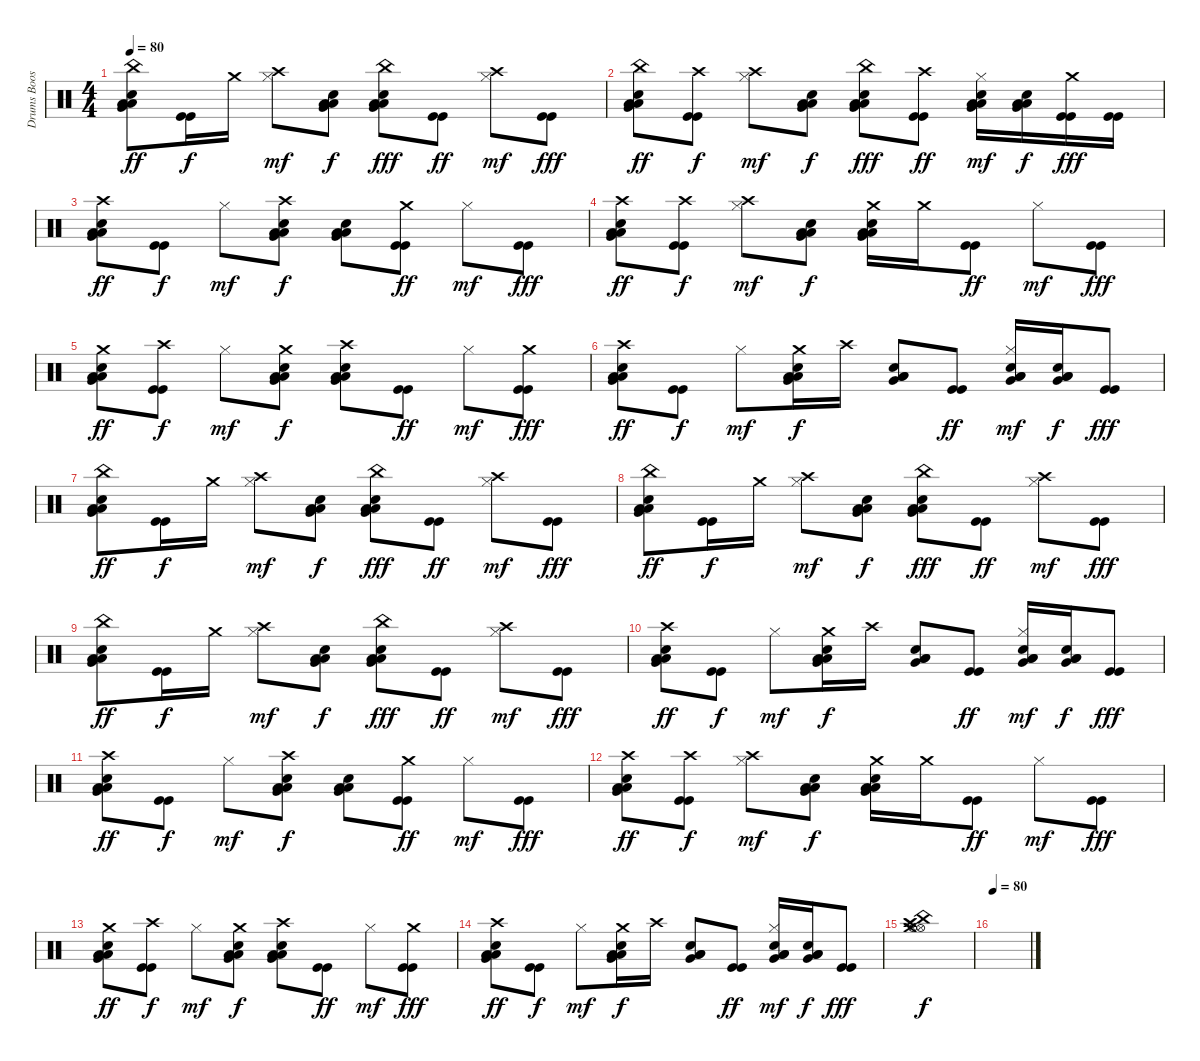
\track ("Drums Boost" "Drums Boos") {instrument percussion}
\staff {score}
\articulation defaults
\ts (4 4)
\tempo 80
\clef neutral
\ks c
("China (hit)" "Very Low Tom (hit)" "Low Floor Tom (hit)" "Low Tom (hit)" "Snare (hit) 2").8{bd 60 dy ff} ("Kick (hit)" "Kick (hit)").16{dy f} "Crash medium (hit)".16 ("Hi-Hat (closed)" "Crash high (hit)").8{dy mf} ("Very Low Tom (hit)" "Low Floor Tom (hit)" "Low Tom (hit)" "Snare (hit) 2").8{dy f} ("China (hit)" "Very Low Tom (hit)" "Low Floor Tom (hit)" "Low Tom (hit)" "Snare (hit) 2").8{dy fff} ("Kick (hit)" "Kick (hit)").8{dy ff} ("Hi-Hat (closed)" "Crash high (hit)").8{dy mf} ("Kick (hit)" "Kick (hit)").8{dy fff} |
("China (hit)" "Very Low Tom (hit)" "Low Floor Tom (hit)" "Low Tom (hit)" "Snare (hit) 2").8{bd 60 dy ff} ("Crash high (hit)" "Kick (hit)" "Kick (hit)").8{dy f} ("Hi-Hat (closed)" "Crash high (hit)").8{dy mf} ("Very Low Tom (hit)" "Low Floor Tom (hit)" "Low Tom (hit)" "Snare (hit) 2").8{dy f} ("China (hit)" "Very Low Tom (hit)" "Low Floor Tom (hit)" "Low Tom (hit)" "Snare (hit) 2").8{dy fff} ("Crash high (hit)" "Kick (hit)" "Kick (hit)").8{dy ff} ("Hi-Hat (closed)" "Very Low Tom (hit)" "Low Floor Tom (hit)" "Electric Snare (hit)" "Low Tom (hit)").16{dy mf} ("Very Low Tom (hit)" "Low Floor Tom (hit)" "Electric Snare (hit)" "Low Tom (hit)").16{dy f} ("Crash medium (hit)" "Kick (hit)" "Kick (hit)").16{dy fff} ("Kick (hit)" "Kick (hit)").16 |
("Crash high (hit)" "Very Low Tom (hit)" "Low Floor Tom (hit)" "Low Tom (hit)" "Snare (hit) 2").8{bd 60 dy ff} ("Kick (hit)" "Kick (hit)").8{dy f} "Hi-Hat (closed)".8{dy mf} ("Crash high (hit)" "Very Low Tom (hit)" "Low Floor Tom (hit)" "Low Tom (hit)" "Snare (hit) 2").8{dy f} ("Very Low Tom (hit)" "Low Floor Tom (hit)" "Low Tom (hit)" "Snare (hit) 2").8 ("Crash medium (hit)" "Kick (hit)" "Kick (hit)").8{dy ff} "Hi-Hat (closed)".8{dy mf} ("Kick (hit)" "Kick (hit)").8{dy fff} |
("Crash high (hit)" "Very Low Tom (hit)" "Low Floor Tom (hit)" "Low Tom (hit)" "Snare (hit) 2").8{bd 60 dy ff} ("Crash high (hit)" "Kick (hit)" "Kick (hit)").8{dy f} ("Hi-Hat (closed)" "Crash high (hit)").8{dy mf} ("Very Low Tom (hit)" "Low Floor Tom (hit)" "Low Tom (hit)" "Snare (hit) 2").8{dy f} ("Crash medium (hit)" "Very Low Tom (hit)" "Low Floor Tom (hit)" "Low Tom (hit)" "Snare (hit) 2").16 "Crash medium (hit)".16 ("Kick (hit)" "Kick (hit)").8{dy ff} "Hi-Hat (closed)".8{dy mf} ("Kick (hit)" "Kick (hit)").8{dy fff} |
("Crash medium (hit)" "Very Low Tom (hit)" "Low Floor Tom (hit)" "Low Tom (hit)" "Snare (hit) 2").8{bd 60 dy ff} ("Crash high (hit)" "Kick (hit)" "Kick (hit)").8{dy f} "Hi-Hat (closed)".8{dy mf} ("Crash medium (hit)" "Very Low Tom (hit)" "Low Floor Tom (hit)" "Low Tom (hit)" "Snare (hit) 2").8{dy f} ("Crash high (hit)" "Very Low Tom (hit)" "Low Floor Tom (hit)" "Low Tom (hit)" "Snare (hit) 2").8 ("Kick (hit)" "Kick (hit)").8{dy ff} "Hi-Hat (closed)".8{dy mf} ("Crash medium (hit)" "Kick (hit)" "Kick (hit)").8{dy fff} |
("Crash high (hit)" "Very Low Tom (hit)" "Low Floor Tom (hit)" "Low Tom (hit)" "Snare (hit) 2").8{bd 60 dy ff} ("Kick (hit)" "Kick (hit)").8{dy f} "Hi-Hat (closed)".8{dy mf} ("Crash medium (hit)" "Very Low Tom (hit)" "Low Floor Tom (hit)" "Low Tom (hit)" "Snare (hit) 2").16{dy f} "Crash high (hit)".16 ("Very Low Tom (hit)" "Low Floor Tom (hit)" "Low Tom (hit)" "Snare (hit) 2").8 ("Kick (hit)" "Kick (hit)").8{dy ff} ("Hi-Hat (closed)" "Very Low Tom (hit)" "Low Floor Tom (hit)" "Electric Snare (hit)" "Low Tom (hit)").16{dy mf} ("Very Low Tom (hit)" "Low Floor Tom (hit)" "Electric Snare (hit)" "Low Tom (hit)").16{dy f} ("Kick (hit)" "Kick (hit)").8{dy fff} |
("China (hit)" "Very Low Tom (hit)" "Low Floor Tom (hit)" "Low Tom (hit)" "Snare (hit) 2").8{bd 60 dy ff} ("Kick (hit)" "Kick (hit)").16{dy f} "Crash medium (hit)".16 ("Hi-Hat (closed)" "Crash high (hit)").8{dy mf} ("Very Low Tom (hit)" "Low Floor Tom (hit)" "Low Tom (hit)" "Snare (hit) 2").8{dy f} ("China (hit)" "Very Low Tom (hit)" "Low Floor Tom (hit)" "Low Tom (hit)" "Snare (hit) 2").8{dy fff} ("Kick (hit)" "Kick (hit)").8{dy ff} ("Hi-Hat (closed)" "Crash high (hit)").8{dy mf} ("Kick (hit)" "Kick (hit)").8{dy fff} |
("China (hit)" "Very Low Tom (hit)" "Low Floor Tom (hit)" "Low Tom (hit)" "Snare (hit) 2").8{bd 60 dy ff} ("Kick (hit)" "Kick (hit)").16{dy f} "Crash medium (hit)".16 ("Hi-Hat (closed)" "Crash high (hit)").8{dy mf} ("Very Low Tom (hit)" "Low Floor Tom (hit)" "Low Tom (hit)" "Snare (hit) 2").8{dy f} ("China (hit)" "Very Low Tom (hit)" "Low Floor Tom (hit)" "Low Tom (hit)" "Snare (hit) 2").8{dy fff} ("Kick (hit)" "Kick (hit)").8{dy ff} ("Hi-Hat (closed)" "Crash high (hit)").8{dy mf} ("Kick (hit)" "Kick (hit)").8{dy fff} |
("China (hit)" "Very Low Tom (hit)" "Low Floor Tom (hit)" "Low Tom (hit)" "Snare (hit) 2").8{bd 60 dy ff} ("Kick (hit)" "Kick (hit)").16{dy f} "Crash medium (hit)".16 ("Hi-Hat (closed)" "Crash high (hit)").8{dy mf} ("Very Low Tom (hit)" "Low Floor Tom (hit)" "Low Tom (hit)" "Snare (hit) 2").8{dy f} ("China (hit)" "Very Low Tom (hit)" "Low Floor Tom (hit)" "Low Tom (hit)" "Snare (hit) 2").8{dy fff} ("Kick (hit)" "Kick (hit)").8{dy ff} ("Hi-Hat (closed)" "Crash high (hit)").8{dy mf} ("Kick (hit)" "Kick (hit)").8{dy fff} |
("Crash high (hit)" "Very Low Tom (hit)" "Low Floor Tom (hit)" "Low Tom (hit)" "Snare (hit) 2").8{bd 60 dy ff} ("Kick (hit)" "Kick (hit)").8{dy f} "Hi-Hat (closed)".8{dy mf} ("Crash medium (hit)" "Very Low Tom (hit)" "Low Floor Tom (hit)" "Low Tom (hit)" "Snare (hit) 2").16{dy f} "Crash high (hit)".16 ("Very Low Tom (hit)" "Low Floor Tom (hit)" "Low Tom (hit)" "Snare (hit) 2").8 ("Kick (hit)" "Kick (hit)").8{dy ff} ("Hi-Hat (closed)" "Very Low Tom (hit)" "Low Floor Tom (hit)" "Electric Snare (hit)" "Low Tom (hit)").16{dy mf} ("Very Low Tom (hit)" "Low Floor Tom (hit)" "Electric Snare (hit)" "Low Tom (hit)").16{dy f} ("Kick (hit)" "Kick (hit)").8{dy fff} |
("Crash high (hit)" "Very Low Tom (hit)" "Low Floor Tom (hit)" "Low Tom (hit)" "Snare (hit) 2").8{bd 60 dy ff} ("Kick (hit)" "Kick (hit)").8{dy f} "Hi-Hat (closed)".8{dy mf} ("Crash high (hit)" "Very Low Tom (hit)" "Low Floor Tom (hit)" "Low Tom (hit)" "Snare (hit) 2").8{dy f} ("Very Low Tom (hit)" "Low Floor Tom (hit)" "Low Tom (hit)" "Snare (hit) 2").8 ("Crash medium (hit)" "Kick (hit)" "Kick (hit)").8{dy ff} "Hi-Hat (closed)".8{dy mf} ("Kick (hit)" "Kick (hit)").8{dy fff} |
("Crash high (hit)" "Very Low Tom (hit)" "Low Floor Tom (hit)" "Low Tom (hit)" "Snare (hit) 2").8{bd 60 dy ff} ("Crash high (hit)" "Kick (hit)" "Kick (hit)").8{dy f} ("Hi-Hat (closed)" "Crash high (hit)").8{dy mf} ("Very Low Tom (hit)" "Low Floor Tom (hit)" "Low Tom (hit)" "Snare (hit) 2").8{dy f} ("Crash medium (hit)" "Very Low Tom (hit)" "Low Floor Tom (hit)" "Low Tom (hit)" "Snare (hit) 2").16 "Crash medium (hit)".16 ("Kick (hit)" "Kick (hit)").8{dy ff} "Hi-Hat (closed)".8{dy mf} ("Kick (hit)" "Kick (hit)").8{dy fff} |
("Crash medium (hit)" "Very Low Tom (hit)" "Low Floor Tom (hit)" "Low Tom (hit)" "Snare (hit) 2").8{bd 60 dy ff} ("Crash high (hit)" "Kick (hit)" "Kick (hit)").8{dy f} "Hi-Hat (closed)".8{dy mf} ("Crash medium (hit)" "Very Low Tom (hit)" "Low Floor Tom (hit)" "Low Tom (hit)" "Snare (hit) 2").8{dy f} ("Crash high (hit)" "Very Low Tom (hit)" "Low Floor Tom (hit)" "Low Tom (hit)" "Snare (hit) 2").8 ("Kick (hit)" "Kick (hit)").8{dy ff} "Hi-Hat (closed)".8{dy mf} ("Crash medium (hit)" "Kick (hit)" "Kick (hit)").8{dy fff} |
("Crash high (hit)" "Very Low Tom (hit)" "Low Floor Tom (hit)" "Low Tom (hit)" "Snare (hit) 2").8{bd 60 dy ff} ("Kick (hit)" "Kick (hit)").8{dy f} "Hi-Hat (closed)".8{dy mf} ("Crash medium (hit)" "Very Low Tom (hit)" "Low Floor Tom (hit)" "Low Tom (hit)" "Snare (hit) 2").16{dy f} "Crash high (hit)".16 ("Very Low Tom (hit)" "Low Floor Tom (hit)" "Low Tom (hit)" "Snare (hit) 2").8 ("Kick (hit)" "Kick (hit)").8{dy ff} ("Hi-Hat (closed)" "Very Low Tom (hit)" "Low Floor Tom (hit)" "Electric Snare (hit)" "Low Tom (hit)").16{dy mf} ("Very Low Tom (hit)" "Low Floor Tom (hit)" "Electric Snare (hit)" "Low Tom (hit)").16{dy f} ("Kick (hit)" "Kick (hit)").8{dy fff} |
("Crash high (hit)" "China (hit)" "Hi-Hat (open)" "Hi-Hat (open)" "Crash medium (hit)").1{dy f} |
\tempo 80
